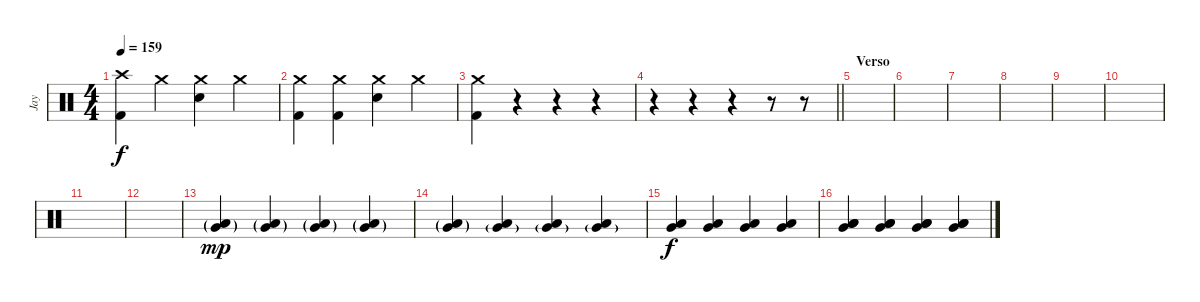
\track ("Jay" "Jay") {instrument percussion}
\staff {score}
\articulation defaults
\ts (4 4)
\tempo 159
\clef neutral
\ks c
("Crash high (hit)" "Kick (hit) 2").4{dy f} "Crash medium (hit)".4 ("Crash medium (hit)" "Electric Snare (hit)").4 "Crash medium (hit)".4 |
("Crash medium (hit)" "Kick (hit) 2").4 ("Crash medium (hit)" "Kick (hit) 2").4 ("Crash medium (hit)" "Electric Snare (hit)").4 "Crash medium (hit)".4 |
("Crash medium (hit)" "Kick (hit) 2").4 r.4 r.4 r.4 |
\barLineRight lightlight
r.4 r.4 r.4 r.8 r.8 |
\section ("" "Verso")
|
|
|
|
|
|
|
|
("Low Tom (hit)"{g} "Very Low Tom (hit)"{g}).4{dy mp volume 4} ("Low Tom (hit)"{g} "Very Low Tom (hit)"{g}).4 ("Low Tom (hit)"{g} "Very Low Tom (hit)"{g}).4 ("Low Tom (hit)"{g} "Very Low Tom (hit)"{g}).4 |
("Low Tom (hit)"{g} "Very Low Tom (hit)"{g}).4 ("Low Tom (hit)" "Very Low Tom (hit)"{g}).4 ("Low Tom (hit)" "Very Low Tom (hit)"{g}).4 ("Low Tom (hit)" "Very Low Tom (hit)"{g}).4 |
("Low Tom (hit)" "Very Low Tom (hit)").4{dy f} ("Low Tom (hit)" "Very Low Tom (hit)").4{volume 16} ("Low Tom (hit)" "Very Low Tom (hit)").4 ("Low Tom (hit)" "Very Low Tom (hit)").4 |
("Very Low Tom (hit)" "Low Tom (hit)" "Low Tom (hit)").4 ("Low Tom (hit)" "Low Tom (hit)" "Very Low Tom (hit)").4 ("Low Tom (hit)" "Low Tom (hit)" "Very Low Tom (hit)").4 ("Low Tom (hit)" "Low Tom (hit)" "Very Low Tom (hit)").4
